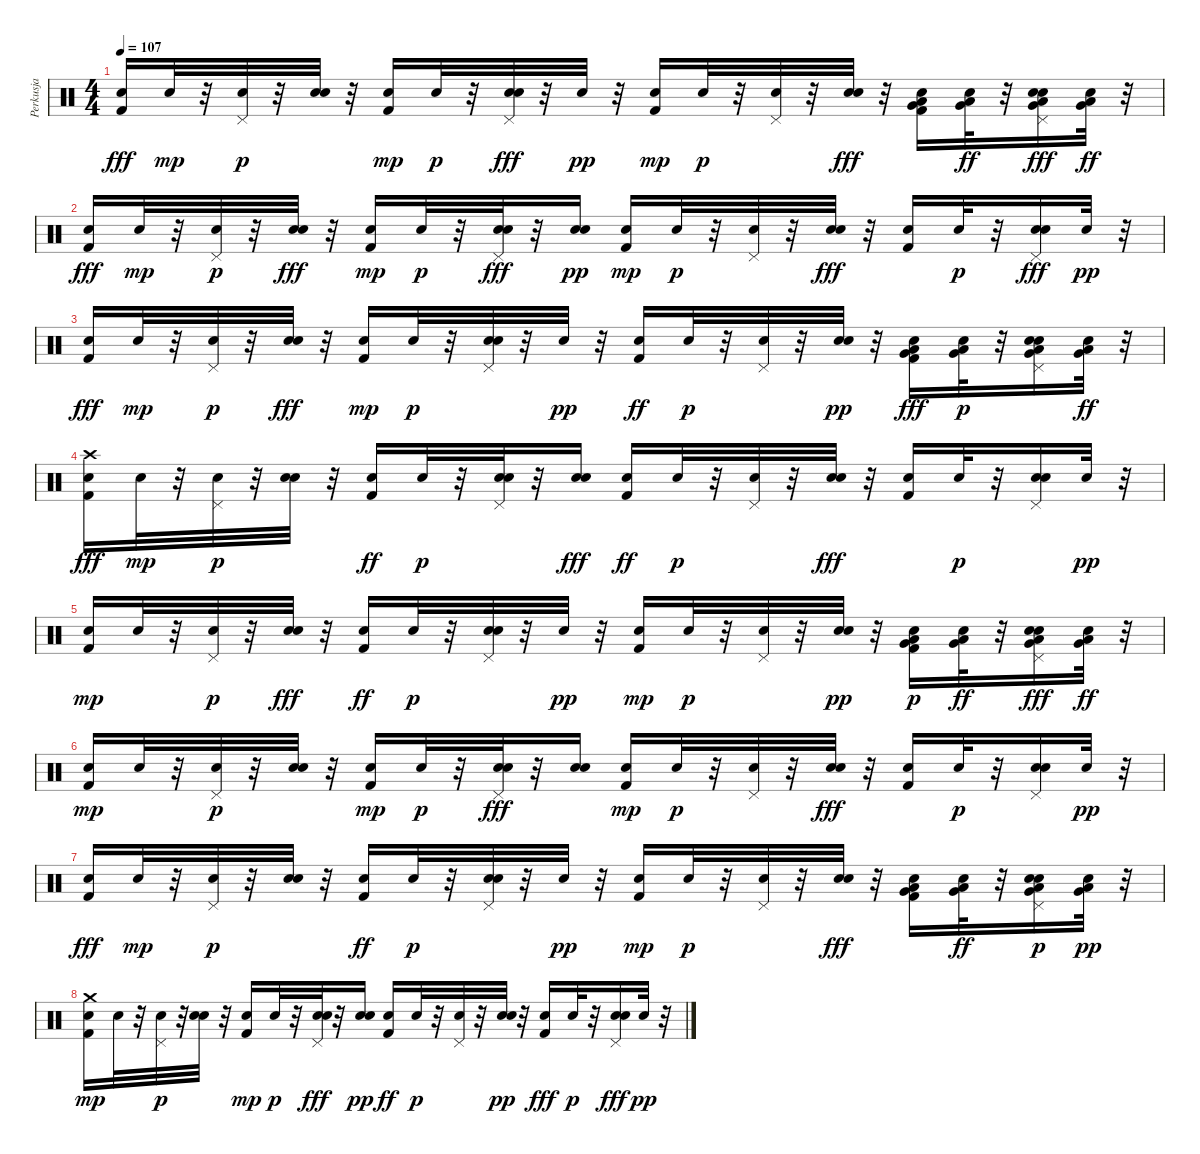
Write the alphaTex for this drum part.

\track ("Perkusja" "Perkusja") {instrument percussion}
\staff {score}
\articulation defaults
\ts (4 4)
\tempo 107
\clef neutral
\ks c
("Snare (hit) 2" "Kick (hit) 2").16{dy fff} "Snare (hit) 2".32{dy mp} r.32 ("Snare (hit) 2" "Pedal Hi-Hat (hit)").32{dy p} r.32 ("Electric Snare (hit)" "Snare (hit) 2").32 r.32 ("Kick (hit) 2" "Snare (hit) 2").16{dy mp} "Snare (hit) 2".32{dy p} r.32 ("Snare (hit) 2" "Electric Snare (hit)" "Pedal Hi-Hat (hit)").32{dy fff} r.32 "Snare (hit) 2".32{dy pp} r.32 ("Kick (hit) 2" "Snare (hit) 2").16{dy mp} "Snare (hit) 2".32{dy p} r.32 ("Pedal Hi-Hat (hit)" "Snare (hit) 2").32 r.32 ("Snare (hit) 2" "Electric Snare (hit)").32{dy fff} r.32 ("Snare (hit) 2" "Very Low Tom (hit)" "Kick (hit) 2" "Low Floor Tom (hit)").16 ("Snare (hit) 2" "Very Low Tom (hit)" "Low Floor Tom (hit)").32{dy ff} r.32 ("Pedal Hi-Hat (hit)" "Low Floor Tom (hit)" "Snare (hit) 2" "Electric Snare (hit)" "Very Low Tom (hit)").16{dy fff} ("Very Low Tom (hit)" "Snare (hit) 2" "Low Floor Tom (hit)").32{dy ff} r.32 |
("Snare (hit) 2" "Kick (hit) 2").16{dy fff} "Snare (hit) 2".32{dy mp} r.32 ("Snare (hit) 2" "Pedal Hi-Hat (hit)").32{dy p} r.32 ("Snare (hit) 2" "Electric Snare (hit)").32{dy fff} r.32 ("Kick (hit) 2" "Snare (hit) 2").16{dy mp} "Snare (hit) 2".32{dy p} r.32 ("Pedal Hi-Hat (hit)" "Snare (hit) 2" "Electric Snare (hit)").32{dy fff} r.32 ("Electric Snare (hit)" "Snare (hit) 2").16{dy pp} ("Kick (hit) 2" "Snare (hit) 2").16{dy mp} "Snare (hit) 2".32{dy p} r.32 ("Snare (hit) 2" "Pedal Hi-Hat (hit)").32 r.32 ("Snare (hit) 2" "Electric Snare (hit)").32{dy fff} r.32 ("Snare (hit) 2" "Kick (hit) 2").16 "Snare (hit) 2".32{dy p} r.32 ("Snare (hit) 2" "Electric Snare (hit)" "Pedal Hi-Hat (hit)").16{dy fff} "Snare (hit) 2".32{dy pp} r.32 |
("Snare (hit) 2" "Kick (hit) 2").16{dy fff} "Snare (hit) 2".32{dy mp} r.32 ("Pedal Hi-Hat (hit)" "Snare (hit) 2").32{dy p} r.32 ("Snare (hit) 2" "Electric Snare (hit)").32{dy fff} r.32 ("Kick (hit) 2" "Snare (hit) 2").16{dy mp} "Snare (hit) 2".32{dy p} r.32 ("Pedal Hi-Hat (hit)" "Electric Snare (hit)" "Snare (hit) 2").32 r.32 "Snare (hit) 2".32{dy pp} r.32 ("Snare (hit) 2" "Kick (hit) 2").16{dy ff} "Snare (hit) 2".32{dy p} r.32 ("Snare (hit) 2" "Pedal Hi-Hat (hit)").32 r.32 ("Electric Snare (hit)" "Snare (hit) 2").32{dy pp} r.32 ("Snare (hit) 2" "Kick (hit) 2" "Very Low Tom (hit)" "Low Floor Tom (hit)").16{dy fff} ("Very Low Tom (hit)" "Low Floor Tom (hit)" "Snare (hit) 2").32{dy p} r.32 ("Electric Snare (hit)" "Very Low Tom (hit)" "Pedal Hi-Hat (hit)" "Low Floor Tom (hit)" "Snare (hit) 2").16 ("Low Floor Tom (hit)" "Snare (hit) 2" "Very Low Tom (hit)").32{dy ff} r.32 |
("Snare (hit) 2" "Kick (hit) 2" "Crash high (hit)").16{dy fff} "Snare (hit) 2".32{dy mp} r.32 ("Pedal Hi-Hat (hit)" "Snare (hit) 2").32{dy p} r.32 ("Electric Snare (hit)" "Snare (hit) 2").32 r.32 ("Snare (hit) 2" "Kick (hit) 2").16{dy ff} "Snare (hit) 2".32{dy p} r.32 ("Pedal Hi-Hat (hit)" "Electric Snare (hit)" "Snare (hit) 2").32 r.32 ("Snare (hit) 2" "Electric Snare (hit)").16{dy fff} ("Snare (hit) 2" "Kick (hit) 2").16{dy ff} "Snare (hit) 2".32{dy p} r.32 ("Snare (hit) 2" "Pedal Hi-Hat (hit)").32 r.32 ("Snare (hit) 2" "Electric Snare (hit)").32{dy fff} r.32 ("Snare (hit) 2" "Kick (hit) 2").16 "Snare (hit) 2".32{dy p} r.32 ("Electric Snare (hit)" "Pedal Hi-Hat (hit)" "Snare (hit) 2").16 "Snare (hit) 2".32{dy pp} r.32 |
("Kick (hit) 2" "Snare (hit) 2").16{dy mp} "Snare (hit) 2".32 r.32 ("Snare (hit) 2" "Pedal Hi-Hat (hit)").32{dy p} r.32 ("Snare (hit) 2" "Electric Snare (hit)").32{dy fff} r.32 ("Snare (hit) 2" "Kick (hit) 2").16{dy ff} "Snare (hit) 2".32{dy p} r.32 ("Pedal Hi-Hat (hit)" "Electric Snare (hit)" "Snare (hit) 2").32 r.32 "Snare (hit) 2".32{dy pp} r.32 ("Kick (hit) 2" "Snare (hit) 2").16{dy mp} "Snare (hit) 2".32{dy p} r.32 ("Snare (hit) 2" "Pedal Hi-Hat (hit)").32 r.32 ("Electric Snare (hit)" "Snare (hit) 2").32{dy pp} r.32 ("Low Floor Tom (hit)" "Very Low Tom (hit)" "Kick (hit) 2" "Snare (hit) 2").16{dy p} ("Snare (hit) 2" "Very Low Tom (hit)" "Low Floor Tom (hit)").32{dy ff} r.32 ("Pedal Hi-Hat (hit)" "Electric Snare (hit)" "Low Floor Tom (hit)" "Snare (hit) 2" "Very Low Tom (hit)").16{dy fff} ("Snare (hit) 2" "Low Floor Tom (hit)" "Very Low Tom (hit)").32{dy ff} r.32 |
("Kick (hit) 2" "Snare (hit) 2").16{dy mp} "Snare (hit) 2".32 r.32 ("Snare (hit) 2" "Pedal Hi-Hat (hit)").32{dy p} r.32 ("Electric Snare (hit)" "Snare (hit) 2").32 r.32 ("Kick (hit) 2" "Snare (hit) 2").16{dy mp} "Snare (hit) 2".32{dy p} r.32 ("Snare (hit) 2" "Electric Snare (hit)" "Pedal Hi-Hat (hit)").32{dy fff} r.32 ("Snare (hit) 2" "Electric Snare (hit)").16 ("Kick (hit) 2" "Snare (hit) 2").16{dy mp} "Snare (hit) 2".32{dy p} r.32 ("Pedal Hi-Hat (hit)" "Snare (hit) 2").32 r.32 ("Snare (hit) 2" "Electric Snare (hit)").32{dy fff} r.32 ("Snare (hit) 2" "Kick (hit) 2").16 "Snare (hit) 2".32{dy p} r.32 ("Electric Snare (hit)" "Pedal Hi-Hat (hit)" "Snare (hit) 2").16 "Snare (hit) 2".32{dy pp} r.32 |
("Snare (hit) 2" "Kick (hit) 2").16{dy fff} "Snare (hit) 2".32{dy mp} r.32 ("Snare (hit) 2" "Pedal Hi-Hat (hit)").32{dy p} r.32 ("Electric Snare (hit)" "Snare (hit) 2").32 r.32 ("Snare (hit) 2" "Kick (hit) 2").16{dy ff} "Snare (hit) 2".32{dy p} r.32 ("Pedal Hi-Hat (hit)" "Electric Snare (hit)" "Snare (hit) 2").32 r.32 "Snare (hit) 2".32{dy pp} r.32 ("Kick (hit) 2" "Snare (hit) 2").16{dy mp} "Snare (hit) 2".32{dy p} r.32 ("Pedal Hi-Hat (hit)" "Snare (hit) 2").32 r.32 ("Snare (hit) 2" "Electric Snare (hit)").32{dy fff} r.32 ("Very Low Tom (hit)" "Snare (hit) 2" "Kick (hit) 2" "Low Floor Tom (hit)").16 ("Low Floor Tom (hit)" "Snare (hit) 2" "Very Low Tom (hit)").32{dy ff} r.32 ("Electric Snare (hit)" "Pedal Hi-Hat (hit)" "Very Low Tom (hit)" "Low Floor Tom (hit)" "Snare (hit) 2").16{dy p} ("Low Floor Tom (hit)" "Very Low Tom (hit)" "Snare (hit) 2").32{dy pp} r.32 |
("Crash medium (hit)" "Kick (hit) 2" "Snare (hit) 2").16{dy mp} "Snare (hit) 2".32 r.32 ("Pedal Hi-Hat (hit)" "Snare (hit) 2").32{dy p} r.32 ("Electric Snare (hit)" "Snare (hit) 2").32 r.32 ("Kick (hit) 2" "Snare (hit) 2").16{dy mp} "Snare (hit) 2".32{dy p} r.32 ("Snare (hit) 2" "Pedal Hi-Hat (hit)" "Electric Snare (hit)").32{dy fff} r.32 ("Electric Snare (hit)" "Snare (hit) 2").16{dy pp} ("Snare (hit) 2" "Kick (hit) 2").16{dy ff} "Snare (hit) 2".32{dy p} r.32 ("Pedal Hi-Hat (hit)" "Snare (hit) 2").32 r.32 ("Electric Snare (hit)" "Snare (hit) 2").32{dy pp} r.32 ("Snare (hit) 2" "Kick (hit) 2").16{dy fff} "Snare (hit) 2".32{dy p} r.32 ("Snare (hit) 2" "Pedal Hi-Hat (hit)" "Electric Snare (hit)").16{dy fff} "Snare (hit) 2".32{dy pp} r.32
